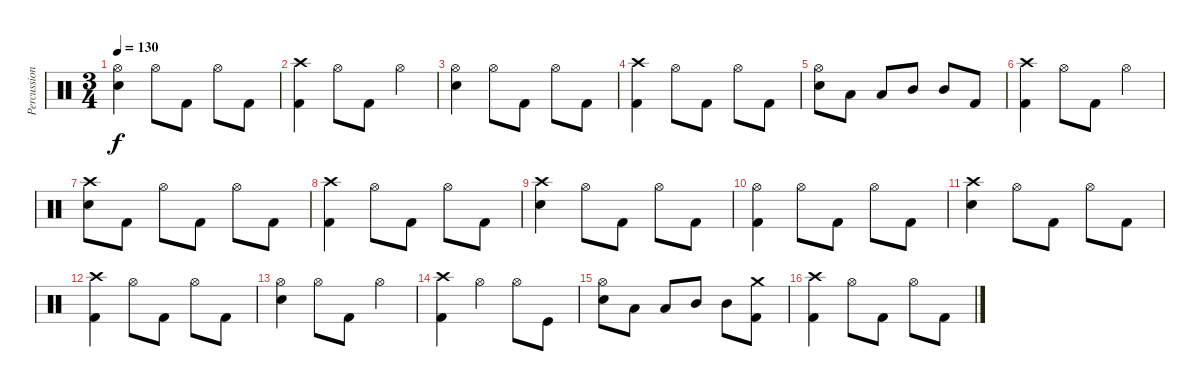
\track ("Percussion" "Percussion") {instrument percussion}
\staff {score}
\articulation defaults
\ts (3 4)
\tempo 130
\clef neutral
\ks c
("Hi-Hat (open)" "Snare (hit) 2").4{dy f} "Hi-Hat (open)".8 "Kick (hit) 2".8 "Hi-Hat (open)".8 "Kick (hit) 2".8 |
("Crash high (hit)" "Kick (hit) 2").4 "Hi-Hat (open)".8 "Kick (hit) 2".8 "Hi-Hat (open)".4 |
("Hi-Hat (open)" "Snare (hit) 2").4 "Hi-Hat (open)".8 "Kick (hit) 2".8 "Hi-Hat (open)".8 "Kick (hit) 2".8 |
("Crash high (hit)" "Kick (hit) 2").4 "Hi-Hat (open)".8 "Kick (hit) 2".8 "Hi-Hat (open)".8 "Kick (hit) 2".8 |
("Hi-Hat (open)" "Snare (hit) 2").8 "Low Tom (hit)".8 "Low Tom (hit)".8 "Mid Tom (hit)".8 "Mid Tom (hit)".8 "Kick (hit) 2".8 |
("Crash high (hit)" "Kick (hit) 2").4 "Hi-Hat (open)".8 "Kick (hit) 2".8 "Hi-Hat (open)".4 |
("Crash high (hit)" "Snare (hit) 2").8 "Kick (hit) 2".8 "Hi-Hat (open)".8 "Kick (hit) 2".8 "Hi-Hat (open)".8 "Kick (hit) 2".8 |
("Crash high (hit)" "Kick (hit) 2").4 "Hi-Hat (open)".8 "Kick (hit) 2".8 "Hi-Hat (open)".8 "Kick (hit) 2".8 |
("Crash high (hit)" "Snare (hit) 2").4 "Hi-Hat (open)".8 "Kick (hit) 2".8 "Hi-Hat (open)".8 "Kick (hit) 2".8 |
("Hi-Hat (open)" "Kick (hit) 2").4 "Hi-Hat (open)".8 "Kick (hit) 2".8 "Hi-Hat (open)".8 "Kick (hit) 2".8 |
("Crash high (hit)" "Snare (hit) 2").4 "Hi-Hat (open)".8 "Kick (hit) 2".8 "Hi-Hat (open)".8 "Kick (hit) 2".8 |
("Crash high (hit)" "Kick (hit) 2").4 "Hi-Hat (open)".8 "Kick (hit) 2".8 "Hi-Hat (open)".8 "Kick (hit) 2".8 |
("Hi-Hat (open)" "Snare (hit) 2").4 "Hi-Hat (open)".8 "Kick (hit) 2".8 "Hi-Hat (open)".4 |
("Crash high (hit)" "Kick (hit) 2").4 "Hi-Hat (open)".4 "Hi-Hat (open)".8 "Kick (hit)".8 |
("Hi-Hat (open)" "Snare (hit) 2").8 "Low Tom (hit)".8 "Low Tom (hit)".8 "Mid Tom (hit)".8 "Mid Tom (hit)".8 ("Crash medium (hit)" "Kick (hit) 2").8 |
("Crash high (hit)" "Kick (hit) 2").4 "Hi-Hat (open)".8 "Kick (hit) 2".8 "Hi-Hat (open)".8 "Kick (hit) 2".8
